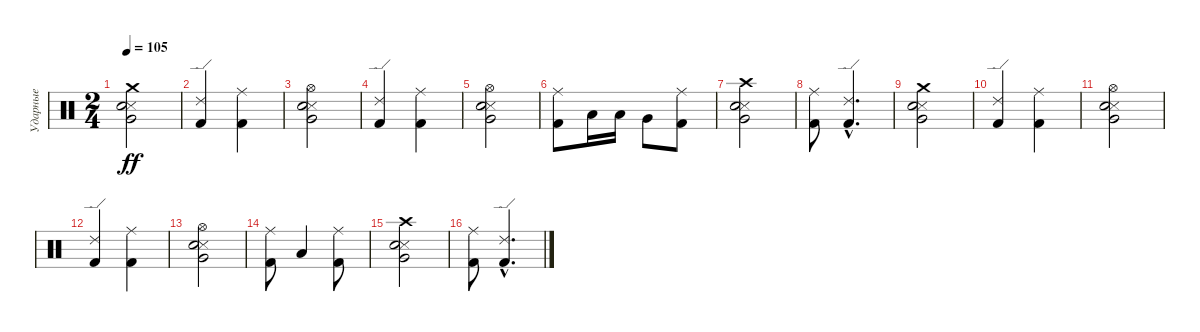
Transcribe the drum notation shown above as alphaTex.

\track ("Ударные" "Ударные") {instrument percussion}
\staff {score}
\articulation defaults
\ts (2 4)
\tempo 105
\clef neutral
\ks c
("Crash medium (hit)" "Metronome (hit)" "Very Low Tom (hit)" "Snare (hit) 2").2{dy ff} |
("Ride (edge) 2" "Kick (hit) 2").4 ("Ride (middle)" "Kick (hit) 2").4 |
("Hi-Hat (open)" "Metronome (hit)" "Very Low Tom (hit)" "Snare (hit) 2").2 |
("Ride (edge) 2" "Kick (hit) 2").4 ("Ride (middle)" "Kick (hit) 2").4 |
("Hi-Hat (open)" "Metronome (hit)" "Very Low Tom (hit)" "Snare (hit) 2").2 |
("Ride (middle)" "Kick (hit) 2").8 "Low Tom (hit)".16 "Low Tom (hit)".16 "Very Low Tom (hit)".8 ("Ride (middle)" "Kick (hit) 2").8 |
("Crash high (hit)" "Metronome (hit)" "Very Low Tom (hit)" "Snare (hit) 2").2 |
("Ride (middle)" "Kick (hit) 2").8 ("Ride (edge) 2"{hac} "Kick (hit) 2"{hac}).4{d} |
("Crash medium (hit)" "Metronome (hit)" "Very Low Tom (hit)" "Snare (hit) 2").2 |
("Ride (edge) 2" "Kick (hit) 2").4 ("Ride (middle)" "Kick (hit) 2").4 |
("Hi-Hat (open)" "Metronome (hit)" "Very Low Tom (hit)" "Snare (hit) 2").2 |
("Ride (edge) 2" "Kick (hit) 2").4 ("Ride (middle)" "Kick (hit) 2").4 |
("Hi-Hat (open)" "Metronome (hit)" "Very Low Tom (hit)" "Snare (hit) 2").2 |
("Ride (middle)" "Kick (hit) 2").8 "Low Tom (hit)".4 ("Ride (middle)" "Kick (hit) 2").8 |
("Crash high (hit)" "Metronome (hit)" "Very Low Tom (hit)" "Snare (hit) 2").2 |
("Ride (middle)" "Kick (hit) 2").8 ("Ride (edge) 2"{hac} "Kick (hit) 2"{hac}).4{d}
